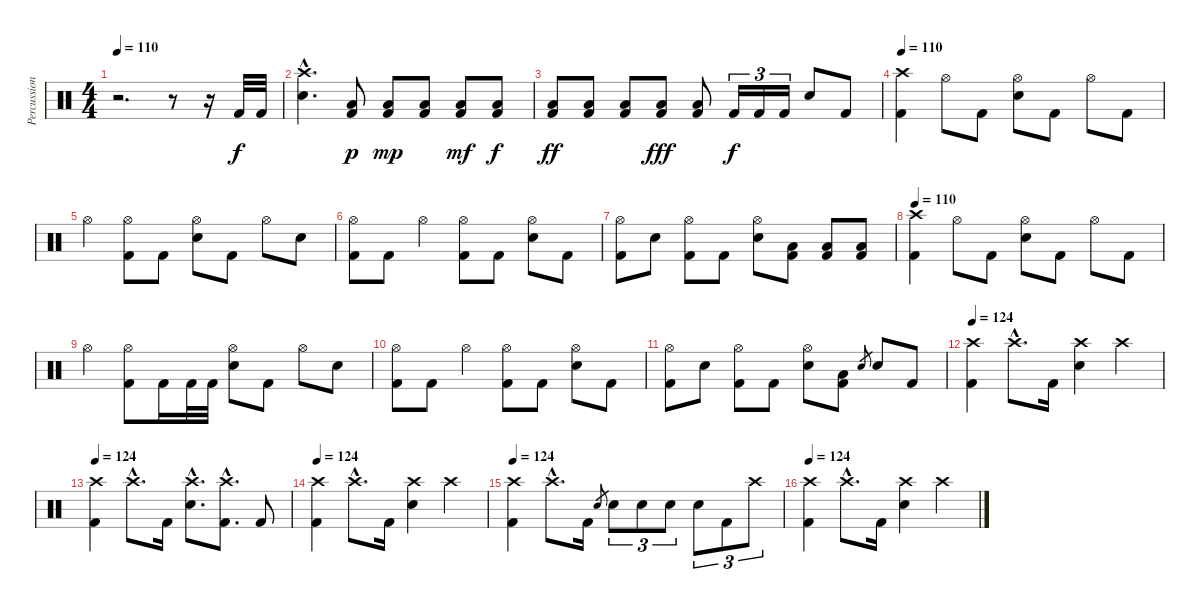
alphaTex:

\track ("Percussion" "Percussion") {instrument percussion}
\staff {score}
\articulation defaults
\ts (4 4)
\tempo 110
\clef neutral
\ks c
r.2{d dy f} r.8 r.16 "Kick (hit) 2".32 "Kick (hit) 2".32 |
("Crash high (hit)"{hac} "Electric Snare (hit)"{hac}).4{d} ("Low Tom (hit)" "Kick (hit) 2").8{dy p} ("Low Tom (hit)" "Kick (hit) 2").8{dy mp} ("Low Tom (hit)" "Kick (hit) 2").8 ("Low Tom (hit)" "Kick (hit) 2").8{dy mf} ("Low Tom (hit)" "Kick (hit) 2").8{dy f} |
("Low Tom (hit)" "Kick (hit) 2").8{dy ff} ("Low Tom (hit)" "Kick (hit) 2").8 ("Low Tom (hit)" "Kick (hit) 2").8 ("Low Tom (hit)" "Kick (hit) 2").8{dy fff} ("Low Tom (hit)" "Kick (hit) 2").8 "Kick (hit) 2".16{tu (3 2) dy f} "Kick (hit) 2".16{tu (3 2)} "Kick (hit) 2".16{tu (3 2)} "Electric Snare (hit)".8 "Kick (hit) 2".8 |
\tempo 110
("Crash high (hit)" "Kick (hit) 2").4 "Hi-Hat (open)".8 "Kick (hit) 2".8 ("Hi-Hat (open)" "Electric Snare (hit)").8 "Kick (hit) 2".8 "Hi-Hat (open)".8 "Kick (hit) 2".8 |
"Hi-Hat (open)".4 ("Hi-Hat (open)" "Kick (hit) 2").8 "Kick (hit) 2".8 ("Hi-Hat (open)" "Electric Snare (hit)").8 "Kick (hit) 2".8 "Hi-Hat (open)".8 "Electric Snare (hit)".8 |
("Hi-Hat (open)" "Kick (hit) 2").8 "Kick (hit) 2".8 "Hi-Hat (open)".4 ("Hi-Hat (open)" "Kick (hit) 2").8 "Kick (hit) 2".8 ("Hi-Hat (open)" "Electric Snare (hit)").8 "Kick (hit) 2".8 |
("Hi-Hat (open)" "Kick (hit) 2").8 "Electric Snare (hit)".8 ("Hi-Hat (open)" "Kick (hit) 2").8 "Kick (hit) 2".8 ("Hi-Hat (open)" "Electric Snare (hit)").8 ("Low Tom (hit)" "Kick (hit) 2").8 ("Low Tom (hit)" "Kick (hit) 2").8 ("Low Tom (hit)" "Kick (hit) 2").8 |
\tempo 110
("Crash high (hit)" "Kick (hit) 2").4 "Hi-Hat (open)".8 "Kick (hit) 2".8 ("Hi-Hat (open)" "Electric Snare (hit)").8 "Kick (hit) 2".8 "Hi-Hat (open)".8 "Kick (hit) 2".8 |
"Hi-Hat (open)".4 ("Hi-Hat (open)" "Kick (hit) 2").8 "Kick (hit) 2".16 "Kick (hit) 2".32 "Kick (hit) 2".32 ("Hi-Hat (open)" "Electric Snare (hit)").8 "Kick (hit) 2".8 "Hi-Hat (open)".8 "Electric Snare (hit)".8 |
("Hi-Hat (open)" "Kick (hit) 2").8 "Kick (hit) 2".8 "Hi-Hat (open)".4 ("Hi-Hat (open)" "Kick (hit) 2").8 "Kick (hit) 2".8 ("Hi-Hat (open)" "Electric Snare (hit)").8 "Kick (hit) 2".8 |
("Hi-Hat (open)" "Kick (hit) 2").8 "Electric Snare (hit)".8 ("Hi-Hat (open)" "Kick (hit) 2").8 "Kick (hit) 2".8 ("Hi-Hat (open)" "Electric Snare (hit)").8 ("Low Tom (hit)" "Kick (hit) 2").8 "Electric Snare (hit)".8{gr} "Electric Snare (hit)".8 "Kick (hit) 2".8 |
\tempo 124
("Crash high (hit)" "Kick (hit) 2").4 "Crash high (hit)"{hac}.8{d} "Kick (hit) 2".16 ("Crash high (hit)" "Electric Snare (hit)").4 "Crash high (hit)".4 |
\tempo 124
("Crash high (hit)" "Kick (hit) 2").4 "Crash high (hit)"{hac}.8{d} "Kick (hit) 2".16 ("Crash high (hit)"{hac} "Electric Snare (hit)"{hac}).8{d} ("Crash high (hit)"{hac} "Kick (hit) 2"{hac}).8{d} "Kick (hit) 2".8 |
\tempo 124
("Crash high (hit)" "Kick (hit) 2").4 "Crash high (hit)"{hac}.8{d} "Kick (hit) 2".16 ("Crash high (hit)" "Electric Snare (hit)").4 "Crash high (hit)".4 |
\tempo 124
("Crash high (hit)" "Kick (hit) 2").4 "Crash high (hit)"{hac}.8{d} "Kick (hit) 2".16 "Electric Snare (hit)".8{gr} "Electric Snare (hit)".8{tu (3 2)} "Electric Snare (hit)".8{tu (3 2)} "Electric Snare (hit)".8{tu (3 2)} "Electric Snare (hit)".8{tu (3 2)} "Kick (hit) 2".8{tu (3 2)} "Crash high (hit)".8{tu (3 2)} |
\tempo 124
("Crash high (hit)" "Kick (hit) 2").4 "Crash high (hit)"{hac}.8{d} "Kick (hit) 2".16 ("Crash high (hit)" "Electric Snare (hit)").4 "Crash high (hit)".4
